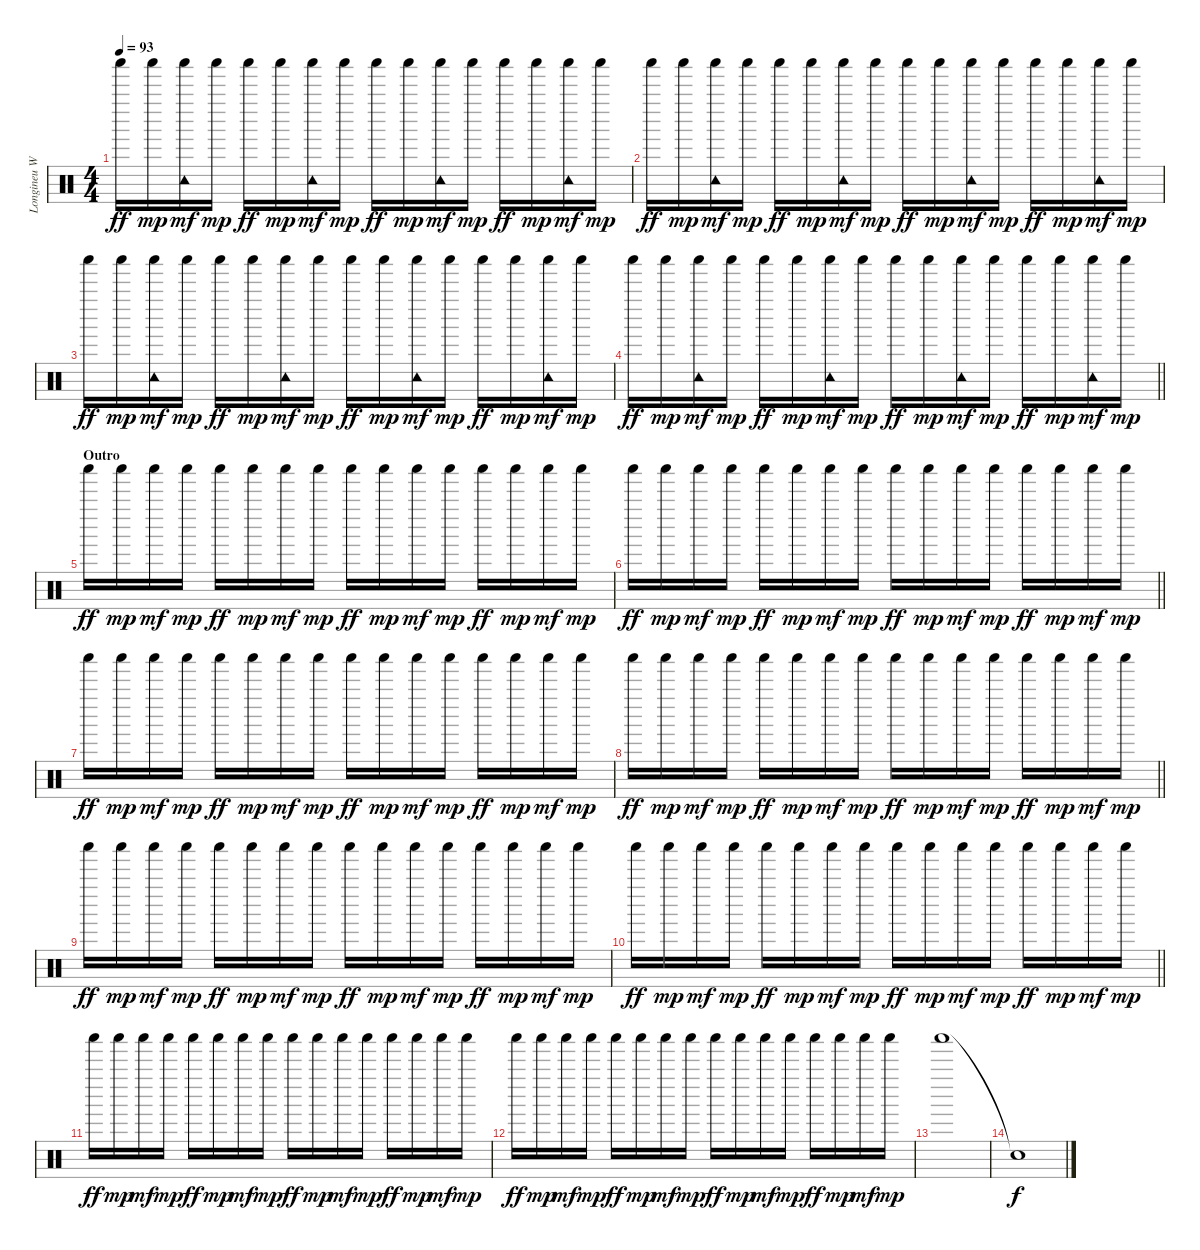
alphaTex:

\track ("Longineu W. Parsons |||" "Longineu W") {instrument percussion}
\staff {score}
\articulation defaults
\ts (4 4)
\tempo 93
\clef neutral
\ks c "Shaker (hit)".16{dy ff} "Shaker (hit)".16{dy mp}
("Tambourine (hit)" "Shaker (hit)").16{dy mf} "Shaker (hit)".16{dy mp} "Shaker (hit)".16{dy ff} "Shaker (hit)".16{dy mp} ("Tambourine (hit)" "Shaker (hit)").16{dy mf} "Shaker (hit)".16{dy mp} "Shaker (hit)".16{dy ff} "Shaker (hit)".16{dy mp} ("Tambourine (hit)" "Shaker (hit)").16{dy mf} "Shaker (hit)".16{dy mp} "Shaker (hit)".16{dy ff} "Shaker (hit)".16{dy mp} ("Tambourine (hit)" "Shaker (hit)").16{dy mf} "Shaker (hit)".16{dy mp} |
"Shaker (hit)".16{dy ff} "Shaker (hit)".16{dy mp} ("Tambourine (hit)" "Shaker (hit)").16{dy mf} "Shaker (hit)".16{dy mp} "Shaker (hit)".16{dy ff} "Shaker (hit)".16{dy mp} ("Tambourine (hit)" "Shaker (hit)").16{dy mf} "Shaker (hit)".16{dy mp} "Shaker (hit)".16{dy ff} "Shaker (hit)".16{dy mp} ("Tambourine (hit)" "Shaker (hit)").16{dy mf} "Shaker (hit)".16{dy mp} "Shaker (hit)".16{dy ff} "Shaker (hit)".16{dy mp} ("Tambourine (hit)" "Shaker (hit)").16{dy mf} "Shaker (hit)".16{dy mp} |
"Shaker (hit)".16{dy ff} "Shaker (hit)".16{dy mp} ("Tambourine (hit)" "Shaker (hit)").16{dy mf} "Shaker (hit)".16{dy mp} "Shaker (hit)".16{dy ff} "Shaker (hit)".16{dy mp} ("Tambourine (hit)" "Shaker (hit)").16{dy mf} "Shaker (hit)".16{dy mp} "Shaker (hit)".16{dy ff} "Shaker (hit)".16{dy mp} ("Tambourine (hit)" "Shaker (hit)").16{dy mf} "Shaker (hit)".16{dy mp} "Shaker (hit)".16{dy ff} "Shaker (hit)".16{dy mp} ("Tambourine (hit)" "Shaker (hit)").16{dy mf} "Shaker (hit)".16{dy mp} |
\barLineRight lightlight "Shaker (hit)".16{dy ff} "Shaker (hit)".16{dy mp}
("Tambourine (hit)" "Shaker (hit)").16{dy mf} "Shaker (hit)".16{dy mp} "Shaker (hit)".16{dy ff} "Shaker (hit)".16{dy mp} ("Tambourine (hit)" "Shaker (hit)").16{dy mf} "Shaker (hit)".16{dy mp} "Shaker (hit)".16{dy ff} "Shaker (hit)".16{dy mp} ("Tambourine (hit)" "Shaker (hit)").16{dy mf} "Shaker (hit)".16{dy mp} "Shaker (hit)".16{dy ff} "Shaker (hit)".16{dy mp} ("Tambourine (hit)" "Shaker (hit)").16{dy mf} "Shaker (hit)".16{dy mp} |
\section ("" "Outro")
"Shaker (hit)".16{dy ff} "Shaker (hit)".16{dy mp} "Shaker (hit)".16{dy mf} "Shaker (hit)".16{dy mp} "Shaker (hit)".16{dy ff} "Shaker (hit)".16{dy mp} "Shaker (hit)".16{dy mf} "Shaker (hit)".16{dy mp} "Shaker (hit)".16{dy ff} "Shaker (hit)".16{dy mp} "Shaker (hit)".16{dy mf} "Shaker (hit)".16{dy mp} "Shaker (hit)".16{dy ff} "Shaker (hit)".16{dy mp} "Shaker (hit)".16{dy mf} "Shaker (hit)".16{dy mp} |
\barLineRight lightlight "Shaker (hit)".16{dy ff} "Shaker (hit)".16{dy mp} "Shaker (hit)".16{dy mf} "Shaker (hit)".16{dy mp} "Shaker (hit)".16{dy ff} "Shaker (hit)".16{dy mp} "Shaker (hit)".16{dy mf} "Shaker (hit)".16{dy mp} "Shaker (hit)".16{dy ff} "Shaker (hit)".16{dy mp} "Shaker (hit)".16{dy mf} "Shaker (hit)".16{dy mp} "Shaker (hit)".16{dy ff} "Shaker (hit)".16{dy mp} "Shaker (hit)".16{dy mf} "Shaker (hit)".16{dy mp}
|
"Shaker (hit)".16{dy ff} "Shaker (hit)".16{dy mp} "Shaker (hit)".16{dy mf} "Shaker (hit)".16{dy mp} "Shaker (hit)".16{dy ff} "Shaker (hit)".16{dy mp} "Shaker (hit)".16{dy mf} "Shaker (hit)".16{dy mp} "Shaker (hit)".16{dy ff} "Shaker (hit)".16{dy mp} "Shaker (hit)".16{dy mf} "Shaker (hit)".16{dy mp} "Shaker (hit)".16{dy ff} "Shaker (hit)".16{dy mp} "Shaker (hit)".16{dy mf} "Shaker (hit)".16{dy mp} |
\barLineRight lightlight "Shaker (hit)".16{dy ff} "Shaker (hit)".16{dy mp} "Shaker (hit)".16{dy mf} "Shaker (hit)".16{dy mp} "Shaker (hit)".16{dy ff} "Shaker (hit)".16{dy mp} "Shaker (hit)".16{dy mf} "Shaker (hit)".16{dy mp} "Shaker (hit)".16{dy ff} "Shaker (hit)".16{dy mp} "Shaker (hit)".16{dy mf} "Shaker (hit)".16{dy mp} "Shaker (hit)".16{dy ff} "Shaker (hit)".16{dy mp} "Shaker (hit)".16{dy mf} "Shaker (hit)".16{dy mp}
|
"Shaker (hit)".16{dy ff} "Shaker (hit)".16{dy mp} "Shaker (hit)".16{dy mf} "Shaker (hit)".16{dy mp} "Shaker (hit)".16{dy ff} "Shaker (hit)".16{dy mp} "Shaker (hit)".16{dy mf} "Shaker (hit)".16{dy mp} "Shaker (hit)".16{dy ff} "Shaker (hit)".16{dy mp} "Shaker (hit)".16{dy mf} "Shaker (hit)".16{dy mp} "Shaker (hit)".16{dy ff} "Shaker (hit)".16{dy mp} "Shaker (hit)".16{dy mf} "Shaker (hit)".16{dy mp} |
\barLineRight lightlight "Shaker (hit)".16{dy ff} "Shaker (hit)".16{dy mp} "Shaker (hit)".16{dy mf} "Shaker (hit)".16{dy mp} "Shaker (hit)".16{dy ff} "Shaker (hit)".16{dy mp} "Shaker (hit)".16{dy mf} "Shaker (hit)".16{dy mp} "Shaker (hit)".16{dy ff} "Shaker (hit)".16{dy mp} "Shaker (hit)".16{dy mf} "Shaker (hit)".16{dy mp} "Shaker (hit)".16{dy ff} "Shaker (hit)".16{dy mp} "Shaker (hit)".16{dy mf} "Shaker (hit)".16{dy mp}
|
"Shaker (hit)".16{dy ff} "Shaker (hit)".16{dy mp} "Shaker (hit)".16{dy mf} "Shaker (hit)".16{dy mp} "Shaker (hit)".16{dy ff} "Shaker (hit)".16{dy mp} "Shaker (hit)".16{dy mf} "Shaker (hit)".16{dy mp} "Shaker (hit)".16{dy ff} "Shaker (hit)".16{dy mp} "Shaker (hit)".16{dy mf} "Shaker (hit)".16{dy mp} "Shaker (hit)".16{dy ff} "Shaker (hit)".16{dy mp} "Shaker (hit)".16{dy mf} "Shaker (hit)".16{dy mp} |
"Shaker (hit)".16{dy ff} "Shaker (hit)".16{dy mp} "Shaker (hit)".16{dy mf} "Shaker (hit)".16{dy mp} "Shaker (hit)".16{dy ff} "Shaker (hit)".16{dy mp} "Shaker (hit)".16{dy mf} "Shaker (hit)".16{dy mp} "Shaker (hit)".16{dy ff} "Shaker (hit)".16{dy mp} "Shaker (hit)".16{dy mf} "Shaker (hit)".16{dy mp} "Shaker (hit)".16{dy ff} "Shaker (hit)".16{dy mp} "Shaker (hit)".16{dy mf} "Shaker (hit)".16{dy mp} |
"Shaker (hit)".1 |
"Snare (hit)"{t}.1{dy f}
